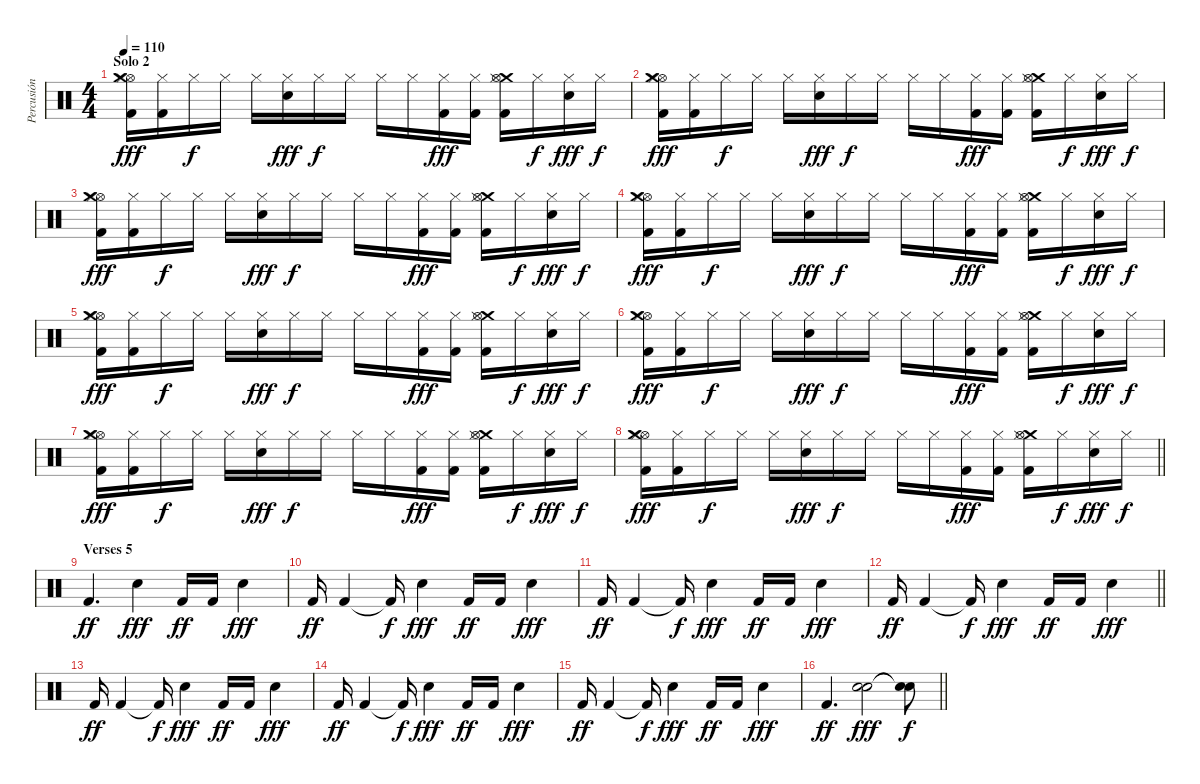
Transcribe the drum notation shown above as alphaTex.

\track ("Percusión" "Percusión") {instrument percussion}
\staff {score}
\articulation defaults
\ts (4 4)
\section ("" "Solo 2")
\tempo 110
\clef neutral
\ks c
("Hi-Hat (open)" "Hi-Hat (closed)" "Crash medium (hit)" "Kick (hit) 2").16{dy fff} ("Hi-Hat (closed)" "Kick (hit) 2").16 "Hi-Hat (closed)".16{dy f} "Hi-Hat (closed)".16 "Hi-Hat (closed)".16 ("Hi-Hat (closed)" "Electric Snare (hit)").16{dy fff} "Hi-Hat (closed)".16{dy f} "Hi-Hat (closed)".16 "Hi-Hat (closed)".16 "Hi-Hat (closed)".16 ("Hi-Hat (closed)" "Kick (hit) 2").16{dy fff} ("Hi-Hat (closed)" "Kick (hit) 2").16 ("Crash medium (hit)" "Hi-Hat (closed)" "Hi-Hat (open)" "Kick (hit) 2").16 "Hi-Hat (closed)".16{dy f} ("Hi-Hat (closed)" "Electric Snare (hit)").16{dy fff} "Hi-Hat (closed)".16{dy f} |
("Hi-Hat (open)" "Hi-Hat (closed)" "Crash medium (hit)" "Kick (hit) 2").16{dy fff} ("Hi-Hat (closed)" "Kick (hit) 2").16 "Hi-Hat (closed)".16{dy f} "Hi-Hat (closed)".16 "Hi-Hat (closed)".16 ("Hi-Hat (closed)" "Electric Snare (hit)").16{dy fff} "Hi-Hat (closed)".16{dy f} "Hi-Hat (closed)".16 "Hi-Hat (closed)".16 "Hi-Hat (closed)".16 ("Hi-Hat (closed)" "Kick (hit) 2").16{dy fff} ("Hi-Hat (closed)" "Kick (hit) 2").16 ("Crash medium (hit)" "Hi-Hat (closed)" "Hi-Hat (open)" "Kick (hit) 2").16 "Hi-Hat (closed)".16{dy f} ("Hi-Hat (closed)" "Electric Snare (hit)").16{dy fff} "Hi-Hat (closed)".16{dy f} |
("Hi-Hat (open)" "Hi-Hat (closed)" "Crash medium (hit)" "Kick (hit) 2").16{dy fff} ("Hi-Hat (closed)" "Kick (hit) 2").16 "Hi-Hat (closed)".16{dy f} "Hi-Hat (closed)".16 "Hi-Hat (closed)".16 ("Hi-Hat (closed)" "Electric Snare (hit)").16{dy fff} "Hi-Hat (closed)".16{dy f} "Hi-Hat (closed)".16 "Hi-Hat (closed)".16 "Hi-Hat (closed)".16 ("Hi-Hat (closed)" "Kick (hit) 2").16{dy fff} ("Hi-Hat (closed)" "Kick (hit) 2").16 ("Crash medium (hit)" "Hi-Hat (closed)" "Hi-Hat (open)" "Kick (hit) 2").16 "Hi-Hat (closed)".16{dy f} ("Hi-Hat (closed)" "Electric Snare (hit)").16{dy fff} "Hi-Hat (closed)".16{dy f} |
("Hi-Hat (open)" "Hi-Hat (closed)" "Crash medium (hit)" "Kick (hit) 2").16{dy fff} ("Hi-Hat (closed)" "Kick (hit) 2").16 "Hi-Hat (closed)".16{dy f} "Hi-Hat (closed)".16 "Hi-Hat (closed)".16 ("Hi-Hat (closed)" "Electric Snare (hit)").16{dy fff} "Hi-Hat (closed)".16{dy f} "Hi-Hat (closed)".16 "Hi-Hat (closed)".16 "Hi-Hat (closed)".16 ("Hi-Hat (closed)" "Kick (hit) 2").16{dy fff} ("Hi-Hat (closed)" "Kick (hit) 2").16 ("Crash medium (hit)" "Hi-Hat (closed)" "Hi-Hat (open)" "Kick (hit) 2").16 "Hi-Hat (closed)".16{dy f} ("Hi-Hat (closed)" "Electric Snare (hit)").16{dy fff} "Hi-Hat (closed)".16{dy f} |
("Hi-Hat (open)" "Hi-Hat (closed)" "Crash medium (hit)" "Kick (hit) 2").16{dy fff} ("Hi-Hat (closed)" "Kick (hit) 2").16 "Hi-Hat (closed)".16{dy f} "Hi-Hat (closed)".16 "Hi-Hat (closed)".16 ("Hi-Hat (closed)" "Electric Snare (hit)").16{dy fff} "Hi-Hat (closed)".16{dy f} "Hi-Hat (closed)".16 "Hi-Hat (closed)".16 "Hi-Hat (closed)".16 ("Hi-Hat (closed)" "Kick (hit) 2").16{dy fff} ("Hi-Hat (closed)" "Kick (hit) 2").16 ("Crash medium (hit)" "Hi-Hat (closed)" "Hi-Hat (open)" "Kick (hit) 2").16 "Hi-Hat (closed)".16{dy f} ("Hi-Hat (closed)" "Electric Snare (hit)").16{dy fff} "Hi-Hat (closed)".16{dy f} |
("Hi-Hat (open)" "Hi-Hat (closed)" "Crash medium (hit)" "Kick (hit) 2").16{dy fff} ("Hi-Hat (closed)" "Kick (hit) 2").16 "Hi-Hat (closed)".16{dy f} "Hi-Hat (closed)".16 "Hi-Hat (closed)".16 ("Hi-Hat (closed)" "Electric Snare (hit)").16{dy fff} "Hi-Hat (closed)".16{dy f} "Hi-Hat (closed)".16 "Hi-Hat (closed)".16 "Hi-Hat (closed)".16 ("Hi-Hat (closed)" "Kick (hit) 2").16{dy fff} ("Hi-Hat (closed)" "Kick (hit) 2").16 ("Crash medium (hit)" "Hi-Hat (closed)" "Hi-Hat (open)" "Kick (hit) 2").16 "Hi-Hat (closed)".16{dy f} ("Hi-Hat (closed)" "Electric Snare (hit)").16{dy fff} "Hi-Hat (closed)".16{dy f} |
("Hi-Hat (open)" "Hi-Hat (closed)" "Crash medium (hit)" "Kick (hit) 2").16{dy fff} ("Hi-Hat (closed)" "Kick (hit) 2").16 "Hi-Hat (closed)".16{dy f} "Hi-Hat (closed)".16 "Hi-Hat (closed)".16 ("Hi-Hat (closed)" "Electric Snare (hit)").16{dy fff} "Hi-Hat (closed)".16{dy f} "Hi-Hat (closed)".16 "Hi-Hat (closed)".16 "Hi-Hat (closed)".16 ("Hi-Hat (closed)" "Kick (hit) 2").16{dy fff} ("Hi-Hat (closed)" "Kick (hit) 2").16 ("Crash medium (hit)" "Hi-Hat (closed)" "Hi-Hat (open)" "Kick (hit) 2").16 "Hi-Hat (closed)".16{dy f} ("Hi-Hat (closed)" "Electric Snare (hit)").16{dy fff} "Hi-Hat (closed)".16{dy f} |
\barLineRight lightlight
("Hi-Hat (open)" "Hi-Hat (closed)" "Crash medium (hit)" "Kick (hit) 2").16{dy fff} ("Hi-Hat (closed)" "Kick (hit) 2").16 "Hi-Hat (closed)".16{dy f} "Hi-Hat (closed)".16 "Hi-Hat (closed)".16 ("Hi-Hat (closed)" "Electric Snare (hit)").16{dy fff} "Hi-Hat (closed)".16{dy f} "Hi-Hat (closed)".16 "Hi-Hat (closed)".16 "Hi-Hat (closed)".16 ("Hi-Hat (closed)" "Kick (hit) 2").16{dy fff} ("Hi-Hat (closed)" "Kick (hit) 2").16 ("Crash medium (hit)" "Hi-Hat (closed)" "Hi-Hat (open)" "Kick (hit) 2").16 "Hi-Hat (closed)".16{dy f} ("Hi-Hat (closed)" "Electric Snare (hit)").16{dy fff} "Hi-Hat (closed)".16{dy f} |
\section ("" "Verses 5")
"Kick (hit) 2".4{d dy ff} "Electric Snare (hit)".4{dy fff} "Kick (hit) 2".16{dy ff} "Kick (hit) 2".16 "Electric Snare (hit)".4{dy fff} |
"Kick (hit) 2".16{dy ff} "Kick (hit) 2".4 "Kick (hit) 2"{t}.16{dy f} "Electric Snare (hit)".4{dy fff} "Kick (hit) 2".16{dy ff} "Kick (hit) 2".16 "Electric Snare (hit)".4{dy fff} |
"Kick (hit) 2".16{dy ff} "Kick (hit) 2".4 "Kick (hit) 2"{t}.16{dy f} "Electric Snare (hit)".4{dy fff} "Kick (hit) 2".16{dy ff} "Kick (hit) 2".16 "Electric Snare (hit)".4{dy fff} |
\barLineRight lightlight "Kick (hit) 2".16{dy ff} "Kick (hit) 2".4 "Kick (hit) 2"{t}.16{dy f} "Electric Snare (hit)".4{dy fff} "Kick (hit) 2".16{dy ff} "Kick (hit) 2".16 "Electric Snare (hit)".4{dy fff}
|
"Kick (hit) 2".16{dy ff} "Kick (hit) 2".4 "Kick (hit) 2"{t}.16{dy f} "Electric Snare (hit)".4{dy fff} "Kick (hit) 2".16{dy ff} "Kick (hit) 2".16 "Electric Snare (hit)".4{dy fff} |
"Kick (hit) 2".16{dy ff} "Kick (hit) 2".4 "Kick (hit) 2"{t}.16{dy f} "Electric Snare (hit)".4{dy fff} "Kick (hit) 2".16{dy ff} "Kick (hit) 2".16 "Electric Snare (hit)".4{dy fff} |
"Kick (hit) 2".16{dy ff} "Kick (hit) 2".4 "Kick (hit) 2"{t}.16{dy f} "Electric Snare (hit)".4{dy fff} "Kick (hit) 2".16{dy ff} "Kick (hit) 2".16 "Electric Snare (hit)".4{dy fff} |
\barLineRight lightlight "Kick (hit) 2".4{d dy ff}
("Electric Snare (hit)" "Electric Snare (hit)").2{dy fff} ("Electric Snare (hit)"{t} "Electric Snare (hit)"{t}).8{dy f}
